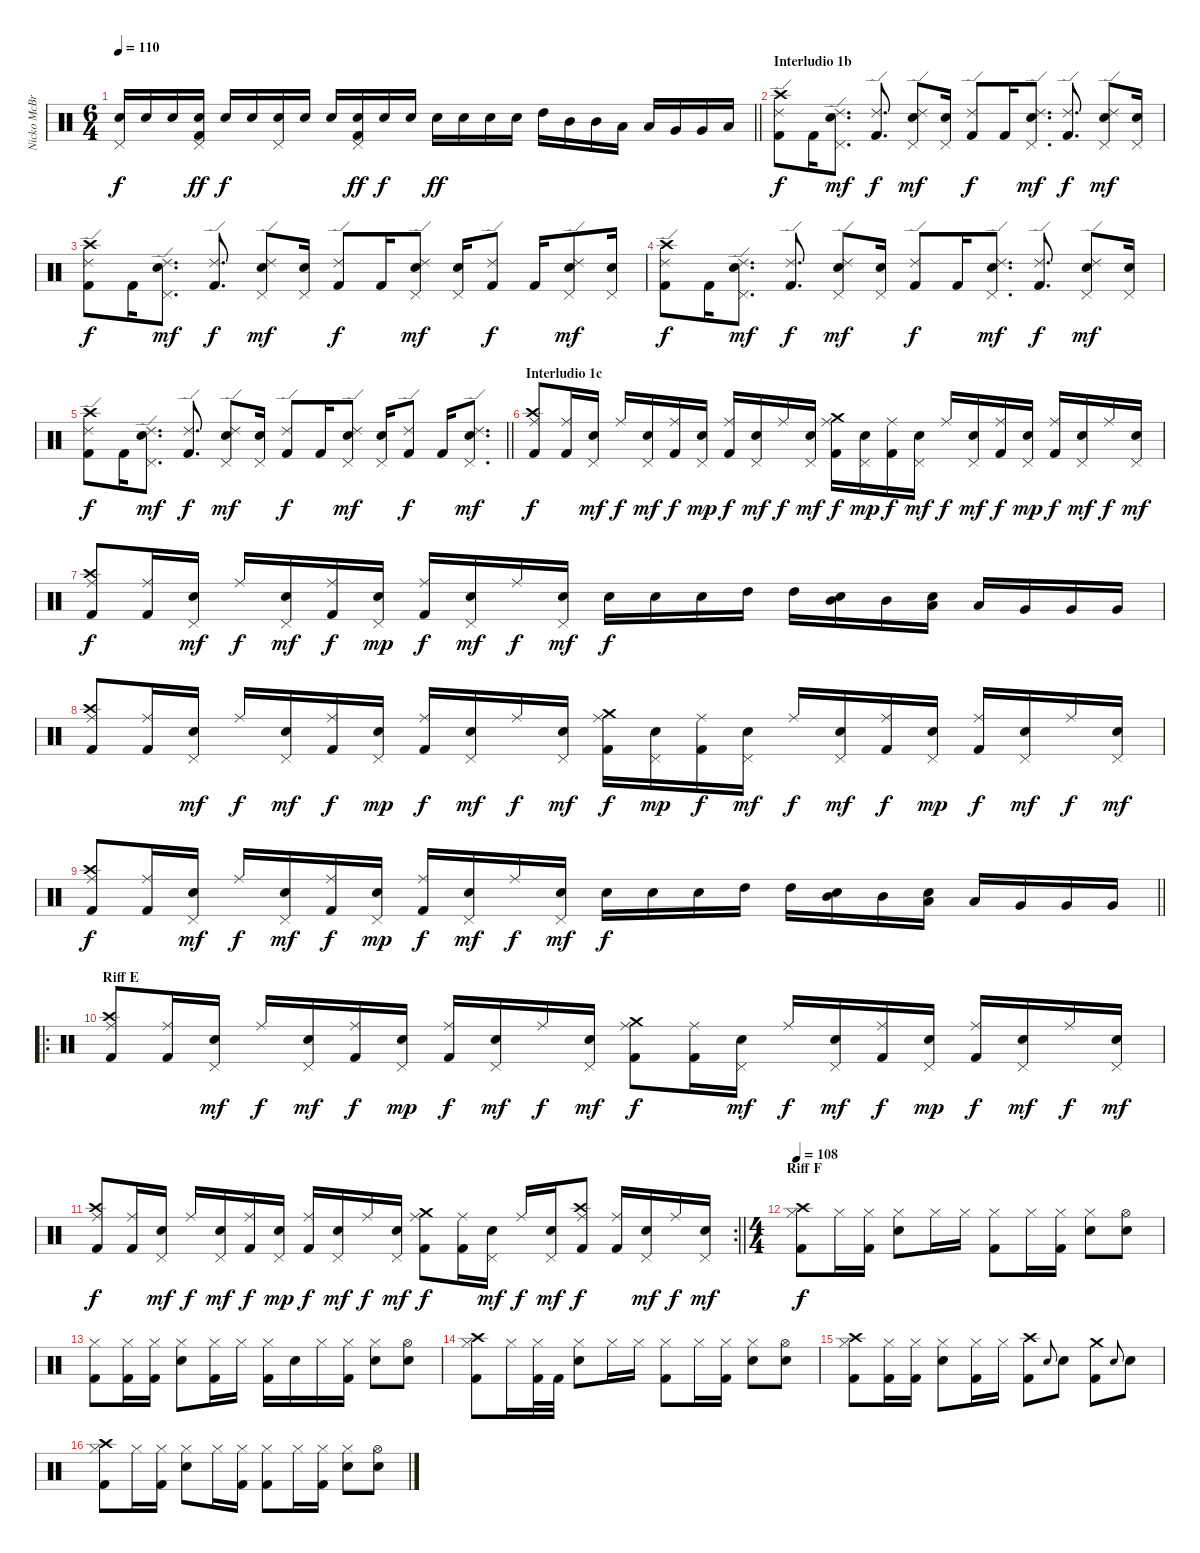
\track ("Nicko McBrain" "Nicko McBr") {instrument percussion}
\staff {score}
\articulation defaults
\ts (6 4)
\tempo 110
\clef neutral
\barLineRight lightlight
\ks c
("Pedal Hi-Hat (hit)" "Snare (hit) 2").16{dy f} "Snare (hit) 2".16 "Snare (hit) 2".16 ("Pedal Hi-Hat (hit)" "Snare (hit) 2" "Kick (hit) 2").16{dy ff} "Snare (hit) 2".16{dy f} "Snare (hit) 2".16 ("Pedal Hi-Hat (hit)" "Snare (hit) 2").16 "Snare (hit) 2".16 "Snare (hit) 2".16 ("Pedal Hi-Hat (hit)" "Snare (hit) 2" "Kick (hit) 2").16{dy ff} "Snare (hit) 2".16{dy f} "Snare (hit) 2".16 "Snare (hit) 2".16{dy ff} "Snare (hit) 2".16 "Snare (hit) 2".16 "Snare (hit) 2".16 "High Tom (hit)".16 "Mid Tom (hit)".16 "Mid Tom (hit)".16 "Low Tom (hit)".16 "Low Tom (hit)".16 "Very Low Tom (hit)".16 "Very Low Tom (hit)".16 "Low Floor Tom (hit)".16 |
\section ("" "Interludio 1b")
("Ride (edge) 2" "Crash high (hit)" "Kick (hit) 2").8{dy f} "Kick (hit) 2".16 ("Ride (edge) 2" "Snare (hit) 2" "Pedal Hi-Hat (hit)").8{d dy mf} ("Ride (edge) 2" "Kick (hit) 2").8{d dy f} ("Ride (edge) 2" "Snare (hit) 2" "Pedal Hi-Hat (hit)").8{dy mf} ("Snare (hit) 2" "Pedal Hi-Hat (hit)").16 ("Ride (edge) 2" "Kick (hit) 2").8{dy f} "Kick (hit) 2".16 ("Ride (edge) 2" "Snare (hit) 2" "Pedal Hi-Hat (hit)").8{d dy mf} ("Ride (edge) 2" "Kick (hit) 2").8{d dy f} ("Ride (edge) 2" "Snare (hit) 2" "Pedal Hi-Hat (hit)").8{dy mf} ("Snare (hit) 2" "Pedal Hi-Hat (hit)").16 |
("Ride (edge) 2" "Crash high (hit)" "Kick (hit) 2").8{dy f} "Kick (hit) 2".16 ("Ride (edge) 2" "Snare (hit) 2" "Pedal Hi-Hat (hit)").8{d dy mf} ("Ride (edge) 2" "Kick (hit) 2").8{d dy f} ("Ride (edge) 2" "Snare (hit) 2" "Pedal Hi-Hat (hit)").8{dy mf} ("Snare (hit) 2" "Pedal Hi-Hat (hit)").16 ("Ride (edge) 2" "Kick (hit) 2").8{dy f} "Kick (hit) 2".16 ("Ride (edge) 2" "Snare (hit) 2" "Pedal Hi-Hat (hit)").8{dy mf} ("Snare (hit) 2" "Pedal Hi-Hat (hit)").16 ("Ride (edge) 2" "Kick (hit) 2").8{dy f} "Kick (hit) 2".16 ("Ride (edge) 2" "Snare (hit) 2" "Pedal Hi-Hat (hit)").8{dy mf} ("Snare (hit) 2" "Pedal Hi-Hat (hit)").16 |
("Ride (edge) 2" "Crash high (hit)" "Kick (hit) 2").8{dy f} "Kick (hit) 2".16 ("Ride (edge) 2" "Snare (hit) 2" "Pedal Hi-Hat (hit)").8{d dy mf} ("Ride (edge) 2" "Kick (hit) 2").8{d dy f} ("Ride (edge) 2" "Snare (hit) 2" "Pedal Hi-Hat (hit)").8{dy mf} ("Snare (hit) 2" "Pedal Hi-Hat (hit)").16 ("Ride (edge) 2" "Kick (hit) 2").8{dy f} "Kick (hit) 2".16 ("Ride (edge) 2" "Snare (hit) 2" "Pedal Hi-Hat (hit)").8{d dy mf} ("Ride (edge) 2" "Kick (hit) 2").8{d dy f} ("Ride (edge) 2" "Snare (hit) 2" "Pedal Hi-Hat (hit)").8{dy mf} ("Snare (hit) 2" "Pedal Hi-Hat (hit)").16 |
\barLineRight lightlight
("Ride (edge) 2" "Crash high (hit)" "Kick (hit) 2").8{dy f} "Kick (hit) 2".16 ("Ride (edge) 2" "Snare (hit) 2" "Pedal Hi-Hat (hit)").8{d dy mf} ("Ride (edge) 2" "Kick (hit) 2").8{d dy f} ("Ride (edge) 2" "Snare (hit) 2" "Pedal Hi-Hat (hit)").8{dy mf} ("Snare (hit) 2" "Pedal Hi-Hat (hit)").16 ("Ride (edge) 2" "Kick (hit) 2").8{dy f} "Kick (hit) 2".16 ("Ride (edge) 2" "Snare (hit) 2" "Pedal Hi-Hat (hit)").8{dy mf} ("Snare (hit) 2" "Pedal Hi-Hat (hit)").16 ("Ride (edge) 2" "Kick (hit) 2").8{dy f} "Kick (hit) 2".16 ("Ride (edge) 2" "Snare (hit) 2" "Pedal Hi-Hat (hit)").8{d dy mf} |
\section ("" "Interludio 1c")
("Ride (middle)" "Crash high (hit)" "Kick (hit) 2").8{dy f} ("Ride (middle)" "Kick (hit) 2").16 ("Pedal Hi-Hat (hit)" "Snare (hit) 2").16{dy mf} "Ride (middle)".16{dy f} ("Pedal Hi-Hat (hit)" "Snare (hit) 2").16{dy mf} ("Ride (middle)" "Kick (hit) 2").16{dy f} ("Pedal Hi-Hat (hit)" "Snare (hit) 2").16{dy mp} ("Ride (middle)" "Kick (hit) 2").16{dy f} ("Pedal Hi-Hat (hit)" "Snare (hit) 2").16{dy mf} "Ride (middle)".16{dy f} ("Pedal Hi-Hat (hit)" "Snare (hit) 2").16{dy mf} ("Ride (middle)" "Crash medium (hit)" "Kick (hit) 2").16{dy f} ("Pedal Hi-Hat (hit)" "Snare (hit) 2").16{dy mp} ("Ride (middle)" "Kick (hit) 2").16{dy f} ("Pedal Hi-Hat (hit)" "Snare (hit) 2").16{dy mf} "Ride (middle)".16{dy f} ("Pedal Hi-Hat (hit)" "Snare (hit) 2").16{dy mf} ("Ride (middle)" "Kick (hit) 2").16{dy f} ("Pedal Hi-Hat (hit)" "Snare (hit) 2").16{dy mp} ("Ride (middle)" "Kick (hit) 2").16{dy f} ("Pedal Hi-Hat (hit)" "Snare (hit) 2").16{dy mf} "Ride (middle)".16{dy f} ("Pedal Hi-Hat (hit)" "Snare (hit) 2").16{dy mf} |
("Ride (middle)" "Crash high (hit)" "Kick (hit) 2").8{dy f} ("Ride (middle)" "Kick (hit) 2").16 ("Pedal Hi-Hat (hit)" "Snare (hit) 2").16{dy mf} "Ride (middle)".16{dy f} ("Pedal Hi-Hat (hit)" "Snare (hit) 2").16{dy mf} ("Ride (middle)" "Kick (hit) 2").16{dy f} ("Pedal Hi-Hat (hit)" "Snare (hit) 2").16{dy mp} ("Ride (middle)" "Kick (hit) 2").16{dy f} ("Pedal Hi-Hat (hit)" "Snare (hit) 2").16{dy mf} "Ride (middle)".16{dy f} ("Pedal Hi-Hat (hit)" "Snare (hit) 2").16{dy mf} "Snare (hit) 2".16{dy f} "Snare (hit) 2".16 "Snare (hit) 2".16 "High Tom (hit)".16 "High Tom (hit)".16 ("Snare (hit) 2" "Mid Tom (hit)").16 "Mid Tom (hit)".16 ("Snare (hit) 2" "Low Tom (hit)").16 "Low Tom (hit)".16 "Very Low Tom (hit)".16 "Very Low Tom (hit)".16 "Very Low Tom (hit)".16 |
("Ride (middle)" "Crash high (hit)" "Kick (hit) 2").8 ("Ride (middle)" "Kick (hit) 2").16 ("Pedal Hi-Hat (hit)" "Snare (hit) 2").16{dy mf} "Ride (middle)".16{dy f} ("Pedal Hi-Hat (hit)" "Snare (hit) 2").16{dy mf} ("Ride (middle)" "Kick (hit) 2").16{dy f} ("Pedal Hi-Hat (hit)" "Snare (hit) 2").16{dy mp} ("Ride (middle)" "Kick (hit) 2").16{dy f} ("Pedal Hi-Hat (hit)" "Snare (hit) 2").16{dy mf} "Ride (middle)".16{dy f} ("Pedal Hi-Hat (hit)" "Snare (hit) 2").16{dy mf} ("Ride (middle)" "Crash medium (hit)" "Kick (hit) 2").16{dy f} ("Pedal Hi-Hat (hit)" "Snare (hit) 2").16{dy mp} ("Ride (middle)" "Kick (hit) 2").16{dy f} ("Pedal Hi-Hat (hit)" "Snare (hit) 2").16{dy mf} "Ride (middle)".16{dy f} ("Pedal Hi-Hat (hit)" "Snare (hit) 2").16{dy mf} ("Ride (middle)" "Kick (hit) 2").16{dy f} ("Pedal Hi-Hat (hit)" "Snare (hit) 2").16{dy mp} ("Ride (middle)" "Kick (hit) 2").16{dy f} ("Pedal Hi-Hat (hit)" "Snare (hit) 2").16{dy mf} "Ride (middle)".16{dy f} ("Pedal Hi-Hat (hit)" "Snare (hit) 2").16{dy mf} |
\barLineRight lightlight
("Ride (middle)" "Crash high (hit)" "Kick (hit) 2").8{dy f} ("Ride (middle)" "Kick (hit) 2").16 ("Pedal Hi-Hat (hit)" "Snare (hit) 2").16{dy mf} "Ride (middle)".16{dy f} ("Pedal Hi-Hat (hit)" "Snare (hit) 2").16{dy mf} ("Ride (middle)" "Kick (hit) 2").16{dy f} ("Pedal Hi-Hat (hit)" "Snare (hit) 2").16{dy mp} ("Ride (middle)" "Kick (hit) 2").16{dy f} ("Pedal Hi-Hat (hit)" "Snare (hit) 2").16{dy mf} "Ride (middle)".16{dy f} ("Pedal Hi-Hat (hit)" "Snare (hit) 2").16{dy mf} "Snare (hit) 2".16{dy f} "Snare (hit) 2".16 "Snare (hit) 2".16 "High Tom (hit)".16 "High Tom (hit)".16 ("Snare (hit) 2" "Mid Tom (hit)").16 "Mid Tom (hit)".16 ("Snare (hit) 2" "Low Tom (hit)").16 "Low Tom (hit)".16 "Very Low Tom (hit)".16 "Very Low Tom (hit)".16 "Very Low Tom (hit)".16 |
\ro
\section ("" "Riff E")
("Ride (middle)" "Crash high (hit)" "Kick (hit) 2").8 ("Ride (middle)" "Kick (hit) 2").16 ("Pedal Hi-Hat (hit)" "Snare (hit) 2").16{dy mf} "Ride (middle)".16{dy f} ("Pedal Hi-Hat (hit)" "Snare (hit) 2").16{dy mf} ("Ride (middle)" "Kick (hit) 2").16{dy f} ("Pedal Hi-Hat (hit)" "Snare (hit) 2").16{dy mp} ("Ride (middle)" "Kick (hit) 2").16{dy f} ("Pedal Hi-Hat (hit)" "Snare (hit) 2").16{dy mf} "Ride (middle)".16{dy f} ("Pedal Hi-Hat (hit)" "Snare (hit) 2").16{dy mf} ("Ride (middle)" "Crash medium (hit)" "Kick (hit) 2").8{dy f} ("Ride (middle)" "Kick (hit) 2").16 ("Pedal Hi-Hat (hit)" "Snare (hit) 2").16{dy mf} "Ride (middle)".16{dy f} ("Pedal Hi-Hat (hit)" "Snare (hit) 2").16{dy mf} ("Ride (middle)" "Kick (hit) 2").16{dy f} ("Pedal Hi-Hat (hit)" "Snare (hit) 2").16{dy mp} ("Ride (middle)" "Kick (hit) 2").16{dy f} ("Pedal Hi-Hat (hit)" "Snare (hit) 2").16{dy mf} "Ride (middle)".16{dy f} ("Pedal Hi-Hat (hit)" "Snare (hit) 2").16{dy mf} |
\rc 2
\barLineRight lightlight
("Ride (middle)" "Crash high (hit)" "Kick (hit) 2").8{dy f} ("Ride (middle)" "Kick (hit) 2").16 ("Pedal Hi-Hat (hit)" "Snare (hit) 2").16{dy mf} "Ride (middle)".16{dy f} ("Pedal Hi-Hat (hit)" "Snare (hit) 2").16{dy mf} ("Ride (middle)" "Kick (hit) 2").16{dy f} ("Pedal Hi-Hat (hit)" "Snare (hit) 2").16{dy mp} ("Ride (middle)" "Kick (hit) 2").16{dy f} ("Pedal Hi-Hat (hit)" "Snare (hit) 2").16{dy mf} "Ride (middle)".16{dy f} ("Pedal Hi-Hat (hit)" "Snare (hit) 2").16{dy mf} ("Ride (middle)" "Crash medium (hit)" "Kick (hit) 2").8{dy f} ("Ride (middle)" "Kick (hit) 2").16 ("Pedal Hi-Hat (hit)" "Snare (hit) 2").16{dy mf} "Ride (middle)".16{dy f} ("Pedal Hi-Hat (hit)" "Snare (hit) 2").16{dy mf} ("Ride (middle)" "Crash high (hit)" "Kick (hit) 2").8{dy f} ("Ride (middle)" "Kick (hit) 2").16 ("Pedal Hi-Hat (hit)" "Snare (hit) 2").16{dy mf} "Ride (middle)".16{dy f} ("Pedal Hi-Hat (hit)" "Snare (hit) 2").16{dy mf} |
\ts (4 4)
\section ("" "Riff F")
\tempo 108
("Hi-Hat (closed)" "Crash high (hit)" "Kick (hit) 2").8{dy f} "Hi-Hat (closed)".16 ("Hi-Hat (closed)" "Kick (hit) 2").16 ("Hi-Hat (closed)" "Snare (hit) 2").8 "Hi-Hat (closed)".16 "Hi-Hat (closed)".16 ("Hi-Hat (closed)" "Kick (hit) 2").8 "Hi-Hat (closed)".16 ("Hi-Hat (closed)" "Kick (hit) 2").16 ("Hi-Hat (closed)" "Snare (hit) 2").8 ("Hi-Hat (open)" "Snare (hit) 2").8 |
("Hi-Hat (closed)" "Kick (hit) 2").8 ("Hi-Hat (closed)" "Kick (hit) 2").16 ("Hi-Hat (closed)" "Kick (hit) 2").16 ("Hi-Hat (closed)" "Snare (hit) 2").8 ("Hi-Hat (closed)" "Kick (hit) 2").16 "Hi-Hat (closed)".16 ("Hi-Hat (closed)" "Kick (hit) 2").16 "Snare (hit) 2".16 "Hi-Hat (closed)".16 ("Hi-Hat (closed)" "Kick (hit) 2").16 ("Hi-Hat (closed)" "Snare (hit) 2").8 ("Hi-Hat (open)" "Snare (hit) 2").8 |
("Hi-Hat (closed)" "Crash high (hit)" "Kick (hit) 2").8 "Hi-Hat (closed)".16 ("Hi-Hat (closed)" "Kick (hit) 2").32 "Kick (hit) 2".32 ("Hi-Hat (closed)" "Snare (hit) 2").8 "Hi-Hat (closed)".16 "Hi-Hat (closed)".16 ("Hi-Hat (closed)" "Kick (hit) 2").8 "Hi-Hat (closed)".16 ("Hi-Hat (closed)" "Kick (hit) 2").16 ("Hi-Hat (closed)" "Snare (hit) 2").8 ("Hi-Hat (open)" "Snare (hit) 2").8 |
("Hi-Hat (closed)" "Crash high (hit)" "Kick (hit) 2").8 ("Hi-Hat (closed)" "Kick (hit) 2").16 ("Hi-Hat (closed)" "Kick (hit) 2").16 ("Hi-Hat (closed)" "Snare (hit) 2").8 ("Hi-Hat (closed)" "Kick (hit) 2").16 "Hi-Hat (closed)".16 ("Crash high (hit)" "Kick (hit) 2").8 "Snare (hit) 2".8{gr onbeat} "Snare (hit) 2".8 ("Crash medium (hit)" "Kick (hit) 2").8 "Snare (hit) 2".8{gr onbeat} "Snare (hit) 2".8 |
("Hi-Hat (closed)" "Crash high (hit)" "Kick (hit) 2").8 "Hi-Hat (closed)".16 ("Hi-Hat (closed)" "Kick (hit) 2").16 ("Hi-Hat (closed)" "Snare (hit) 2").8 "Hi-Hat (closed)".16 ("Hi-Hat (closed)" "Kick (hit) 2").16 ("Hi-Hat (closed)" "Kick (hit) 2").8 "Hi-Hat (closed)".16 ("Hi-Hat (closed)" "Kick (hit) 2").16 ("Hi-Hat (closed)" "Snare (hit) 2").8 ("Hi-Hat (open)" "Snare (hit) 2").8
